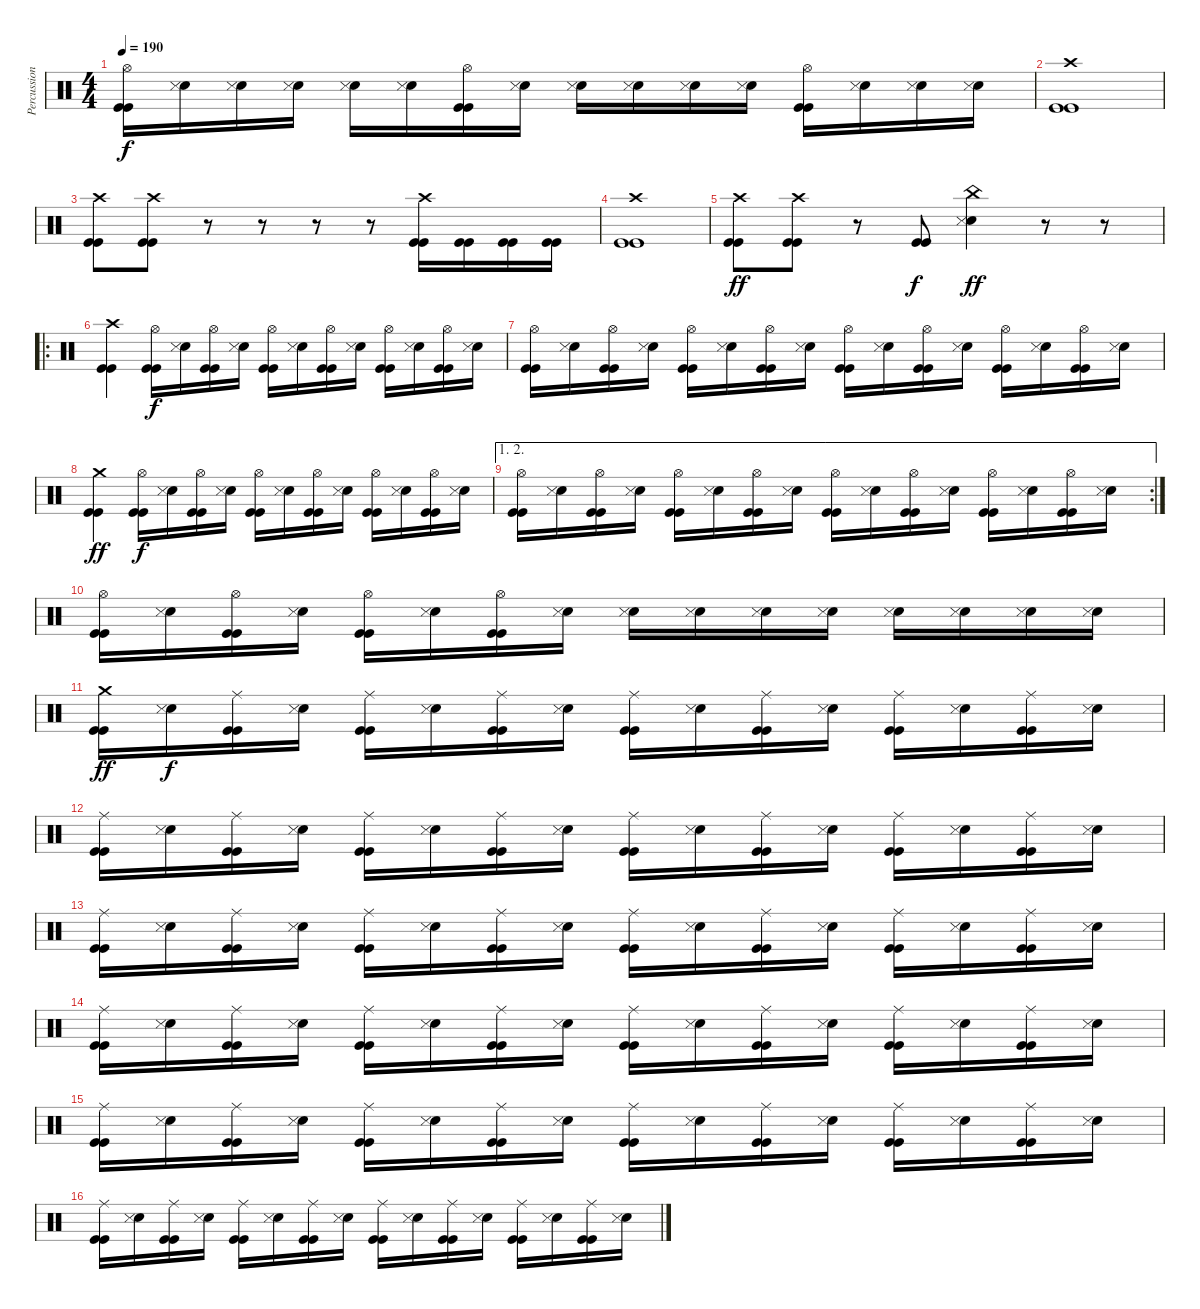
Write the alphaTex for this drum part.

\track ("Percussion" "Percussion") {instrument percussion}
\staff {score}
\articulation defaults
\ts (4 4)
\tempo 190
\clef neutral
\ks c
("Hi-Hat (open)" "Kick (hit)" "Kick (hit)").16{dy f} ("Snare (hit) 2" "Snare (side stick) 3").16 ("Snare (hit) 2" "Snare (side stick) 3").16 ("Snare (hit) 2" "Snare (side stick) 3").16 ("Snare (hit) 2" "Snare (side stick) 3").16 ("Snare (hit) 2" "Snare (side stick) 3").16 ("Hi-Hat (open)" "Kick (hit)" "Kick (hit)").16 ("Snare (hit) 2" "Snare (side stick) 3").16 ("Snare (hit) 2" "Snare (side stick) 3").16 ("Snare (hit) 2" "Snare (side stick) 3").16 ("Snare (hit) 2" "Snare (side stick) 3").16 ("Snare (hit) 2" "Snare (side stick) 3").16 ("Hi-Hat (open)" "Kick (hit)" "Kick (hit)").16 ("Snare (hit) 2" "Snare (side stick) 3").16 ("Snare (hit) 2" "Snare (side stick) 3").16 ("Snare (hit) 2" "Snare (side stick) 3").16 |
("Crash high (hit)" "Kick (hit)" "Kick (hit)").1 |
("Crash high (hit)" "Kick (hit)" "Kick (hit)").8 ("Crash high (hit)" "Kick (hit)" "Kick (hit)").8 r.8 r.8 r.8 r.8 ("Crash high (hit)" "Kick (hit)" "Kick (hit)").16 ("Kick (hit)" "Kick (hit)").16 ("Kick (hit)" "Kick (hit)").16 ("Kick (hit)" "Kick (hit)").16 |
("Crash high (hit)" "Kick (hit)" "Kick (hit)").1 |
("Crash high (hit)" "Kick (hit)" "Kick (hit)").8{dy ff} ("Crash high (hit)" "Kick (hit)" "Kick (hit)").8 r.8 ("Kick (hit)" "Kick (hit)").8{dy f} ("China (hit)" "Snare (hit) 2" "Snare (side stick) 3").4{dy ff} r.8 r.8 |
\ro
("Crash high (hit)" "Kick (hit)" "Kick (hit)").4 ("Hi-Hat (open)" "Kick (hit)" "Kick (hit)").16{dy f} ("Snare (hit) 2" "Snare (side stick) 3").16 ("Hi-Hat (open)" "Kick (hit)" "Kick (hit)").16 ("Snare (hit) 2" "Snare (side stick) 3").16 ("Hi-Hat (open)" "Kick (hit)" "Kick (hit)").16 ("Snare (hit) 2" "Snare (side stick) 3").16 ("Hi-Hat (open)" "Kick (hit)" "Kick (hit)").16 ("Snare (hit) 2" "Snare (side stick) 3").16 ("Hi-Hat (open)" "Kick (hit)" "Kick (hit)").16 ("Snare (hit) 2" "Snare (side stick) 3").16 ("Hi-Hat (open)" "Kick (hit)" "Kick (hit)").16 ("Snare (hit) 2" "Snare (side stick) 3").16 |
("Hi-Hat (open)" "Kick (hit)" "Kick (hit)").16 ("Snare (hit) 2" "Snare (side stick) 3").16 ("Hi-Hat (open)" "Kick (hit)" "Kick (hit)").16 ("Snare (hit) 2" "Snare (side stick) 3").16 ("Hi-Hat (open)" "Kick (hit)" "Kick (hit)").16 ("Snare (hit) 2" "Snare (side stick) 3").16 ("Hi-Hat (open)" "Kick (hit)" "Kick (hit)").16 ("Snare (hit) 2" "Snare (side stick) 3").16 ("Hi-Hat (open)" "Kick (hit)" "Kick (hit)").16 ("Snare (hit) 2" "Snare (side stick) 3").16 ("Hi-Hat (open)" "Kick (hit)" "Kick (hit)").16 ("Snare (hit) 2" "Snare (side stick) 3").16 ("Hi-Hat (open)" "Kick (hit)" "Kick (hit)").16 ("Snare (hit) 2" "Snare (side stick) 3").16 ("Hi-Hat (open)" "Kick (hit)" "Kick (hit)").16 ("Snare (hit) 2" "Snare (side stick) 3").16 |
("Crash medium (hit)" "Kick (hit)" "Kick (hit)").4{dy ff} ("Hi-Hat (open)" "Kick (hit)" "Kick (hit)").16{dy f} ("Snare (hit) 2" "Snare (side stick) 3").16 ("Hi-Hat (open)" "Kick (hit)" "Kick (hit)").16 ("Snare (hit) 2" "Snare (side stick) 3").16 ("Hi-Hat (open)" "Kick (hit)" "Kick (hit)").16 ("Snare (hit) 2" "Snare (side stick) 3").16 ("Hi-Hat (open)" "Kick (hit)" "Kick (hit)").16 ("Snare (hit) 2" "Snare (side stick) 3").16 ("Hi-Hat (open)" "Kick (hit)" "Kick (hit)").16 ("Snare (hit) 2" "Snare (side stick) 3").16 ("Hi-Hat (open)" "Kick (hit)" "Kick (hit)").16 ("Snare (hit) 2" "Snare (side stick) 3").16 |
\ae (1 2)
\rc 2
("Hi-Hat (open)" "Kick (hit)" "Kick (hit)").16 ("Snare (hit) 2" "Snare (side stick) 3").16 ("Hi-Hat (open)" "Kick (hit)" "Kick (hit)").16 ("Snare (hit) 2" "Snare (side stick) 3").16 ("Hi-Hat (open)" "Kick (hit)" "Kick (hit)").16 ("Snare (hit) 2" "Snare (side stick) 3").16 ("Hi-Hat (open)" "Kick (hit)" "Kick (hit)").16 ("Snare (hit) 2" "Snare (side stick) 3").16 ("Hi-Hat (open)" "Kick (hit)" "Kick (hit)").16 ("Snare (hit) 2" "Snare (side stick) 3").16 ("Hi-Hat (open)" "Kick (hit)" "Kick (hit)").16 ("Snare (hit) 2" "Snare (side stick) 3").16 ("Hi-Hat (open)" "Kick (hit)" "Kick (hit)").16 ("Snare (hit) 2" "Snare (side stick) 3").16 ("Hi-Hat (open)" "Kick (hit)" "Kick (hit)").16 ("Snare (hit) 2" "Snare (side stick) 3").16 |
("Hi-Hat (open)" "Kick (hit)" "Kick (hit)").16 ("Snare (hit) 2" "Snare (side stick) 3").16 ("Hi-Hat (open)" "Kick (hit)" "Kick (hit)").16 ("Snare (hit) 2" "Snare (side stick) 3").16 ("Hi-Hat (open)" "Kick (hit)" "Kick (hit)").16 ("Snare (hit) 2" "Snare (side stick) 3").16 ("Hi-Hat (open)" "Kick (hit)" "Kick (hit)").16 ("Snare (hit) 2" "Snare (side stick) 3").16 ("Snare (hit) 2" "Snare (side stick) 3").16 ("Snare (hit) 2" "Snare (side stick) 3").16 ("Snare (hit) 2" "Snare (side stick) 3").16 ("Snare (hit) 2" "Snare (side stick) 3").16 ("Snare (hit) 2" "Snare (side stick) 3").16 ("Snare (hit) 2" "Snare (side stick) 3").16 ("Snare (hit) 2" "Snare (side stick) 3").16 ("Snare (hit) 2" "Snare (side stick) 3").16 |
("Crash medium (hit)" "Kick (hit)" "Kick (hit)").16{dy ff} ("Snare (hit) 2" "Snare (side stick) 3").16{dy f} ("Ride (middle)" "Kick (hit)" "Kick (hit)").16 ("Snare (hit) 2" "Snare (side stick) 3").16 ("Ride (middle)" "Kick (hit)" "Kick (hit)").16 ("Snare (hit) 2" "Snare (side stick) 3").16 ("Ride (middle)" "Kick (hit)" "Kick (hit)").16 ("Snare (hit) 2" "Snare (side stick) 3").16 ("Ride (middle)" "Kick (hit)" "Kick (hit)").16 ("Snare (hit) 2" "Snare (side stick) 3").16 ("Ride (middle)" "Kick (hit)" "Kick (hit)").16 ("Snare (hit) 2" "Snare (side stick) 3").16 ("Ride (middle)" "Kick (hit)" "Kick (hit)").16 ("Snare (hit) 2" "Snare (side stick) 3").16 ("Ride (middle)" "Kick (hit)" "Kick (hit)").16 ("Snare (hit) 2" "Snare (side stick) 3").16 |
("Ride (middle)" "Kick (hit)" "Kick (hit)").16 ("Snare (hit) 2" "Snare (side stick) 3").16 ("Ride (middle)" "Kick (hit)" "Kick (hit)").16 ("Snare (hit) 2" "Snare (side stick) 3").16 ("Ride (middle)" "Kick (hit)" "Kick (hit)").16 ("Snare (hit) 2" "Snare (side stick) 3").16 ("Ride (middle)" "Kick (hit)" "Kick (hit)").16 ("Snare (hit) 2" "Snare (side stick) 3").16 ("Ride (middle)" "Kick (hit)" "Kick (hit)").16 ("Snare (hit) 2" "Snare (side stick) 3").16 ("Ride (middle)" "Kick (hit)" "Kick (hit)").16 ("Snare (hit) 2" "Snare (side stick) 3").16 ("Ride (middle)" "Kick (hit)" "Kick (hit)").16 ("Snare (hit) 2" "Snare (side stick) 3").16 ("Ride (middle)" "Kick (hit)" "Kick (hit)").16 ("Snare (hit) 2" "Snare (side stick) 3").16 |
("Ride (middle)" "Kick (hit)" "Kick (hit)").16 ("Snare (hit) 2" "Snare (side stick) 3").16 ("Ride (middle)" "Kick (hit)" "Kick (hit)").16 ("Snare (hit) 2" "Snare (side stick) 3").16 ("Ride (middle)" "Kick (hit)" "Kick (hit)").16 ("Snare (hit) 2" "Snare (side stick) 3").16 ("Ride (middle)" "Kick (hit)" "Kick (hit)").16 ("Snare (hit) 2" "Snare (side stick) 3").16 ("Ride (middle)" "Kick (hit)" "Kick (hit)").16 ("Snare (hit) 2" "Snare (side stick) 3").16 ("Ride (middle)" "Kick (hit)" "Kick (hit)").16 ("Snare (hit) 2" "Snare (side stick) 3").16 ("Ride (middle)" "Kick (hit)" "Kick (hit)").16 ("Snare (hit) 2" "Snare (side stick) 3").16 ("Ride (middle)" "Kick (hit)" "Kick (hit)").16 ("Snare (hit) 2" "Snare (side stick) 3").16 |
("Ride (middle)" "Kick (hit)" "Kick (hit)").16 ("Snare (hit) 2" "Snare (side stick) 3").16 ("Ride (middle)" "Kick (hit)" "Kick (hit)").16 ("Snare (hit) 2" "Snare (side stick) 3").16 ("Ride (middle)" "Kick (hit)" "Kick (hit)").16 ("Snare (hit) 2" "Snare (side stick) 3").16 ("Ride (middle)" "Kick (hit)" "Kick (hit)").16 ("Snare (hit) 2" "Snare (side stick) 3").16 ("Ride (middle)" "Kick (hit)" "Kick (hit)").16 ("Snare (hit) 2" "Snare (side stick) 3").16 ("Ride (middle)" "Kick (hit)" "Kick (hit)").16 ("Snare (hit) 2" "Snare (side stick) 3").16 ("Ride (middle)" "Kick (hit)" "Kick (hit)").16 ("Snare (hit) 2" "Snare (side stick) 3").16 ("Ride (middle)" "Kick (hit)" "Kick (hit)").16 ("Snare (hit) 2" "Snare (side stick) 3").16 |
("Ride (middle)" "Kick (hit)" "Kick (hit)").16 ("Snare (hit) 2" "Snare (side stick) 3").16 ("Ride (middle)" "Kick (hit)" "Kick (hit)").16 ("Snare (hit) 2" "Snare (side stick) 3").16 ("Ride (middle)" "Kick (hit)" "Kick (hit)").16 ("Snare (hit) 2" "Snare (side stick) 3").16 ("Ride (middle)" "Kick (hit)" "Kick (hit)").16 ("Snare (hit) 2" "Snare (side stick) 3").16 ("Ride (middle)" "Kick (hit)" "Kick (hit)").16 ("Snare (hit) 2" "Snare (side stick) 3").16 ("Ride (middle)" "Kick (hit)" "Kick (hit)").16 ("Snare (hit) 2" "Snare (side stick) 3").16 ("Ride (middle)" "Kick (hit)" "Kick (hit)").16 ("Snare (hit) 2" "Snare (side stick) 3").16 ("Ride (middle)" "Kick (hit)" "Kick (hit)").16 ("Snare (hit) 2" "Snare (side stick) 3").16 |
("Ride (middle)" "Kick (hit)" "Kick (hit)").16 ("Snare (hit) 2" "Snare (side stick) 3").16 ("Ride (middle)" "Kick (hit)" "Kick (hit)").16 ("Snare (hit) 2" "Snare (side stick) 3").16 ("Ride (middle)" "Kick (hit)" "Kick (hit)").16 ("Snare (hit) 2" "Snare (side stick) 3").16 ("Ride (middle)" "Kick (hit)" "Kick (hit)").16 ("Snare (hit) 2" "Snare (side stick) 3").16 ("Ride (middle)" "Kick (hit)" "Kick (hit)").16 ("Snare (hit) 2" "Snare (side stick) 3").16 ("Ride (middle)" "Kick (hit)" "Kick (hit)").16 ("Snare (hit) 2" "Snare (side stick) 3").16 ("Ride (middle)" "Kick (hit)" "Kick (hit)").16 ("Snare (hit) 2" "Snare (side stick) 3").16 ("Ride (middle)" "Kick (hit)" "Kick (hit)").16 ("Snare (hit) 2" "Snare (side stick) 3").16
